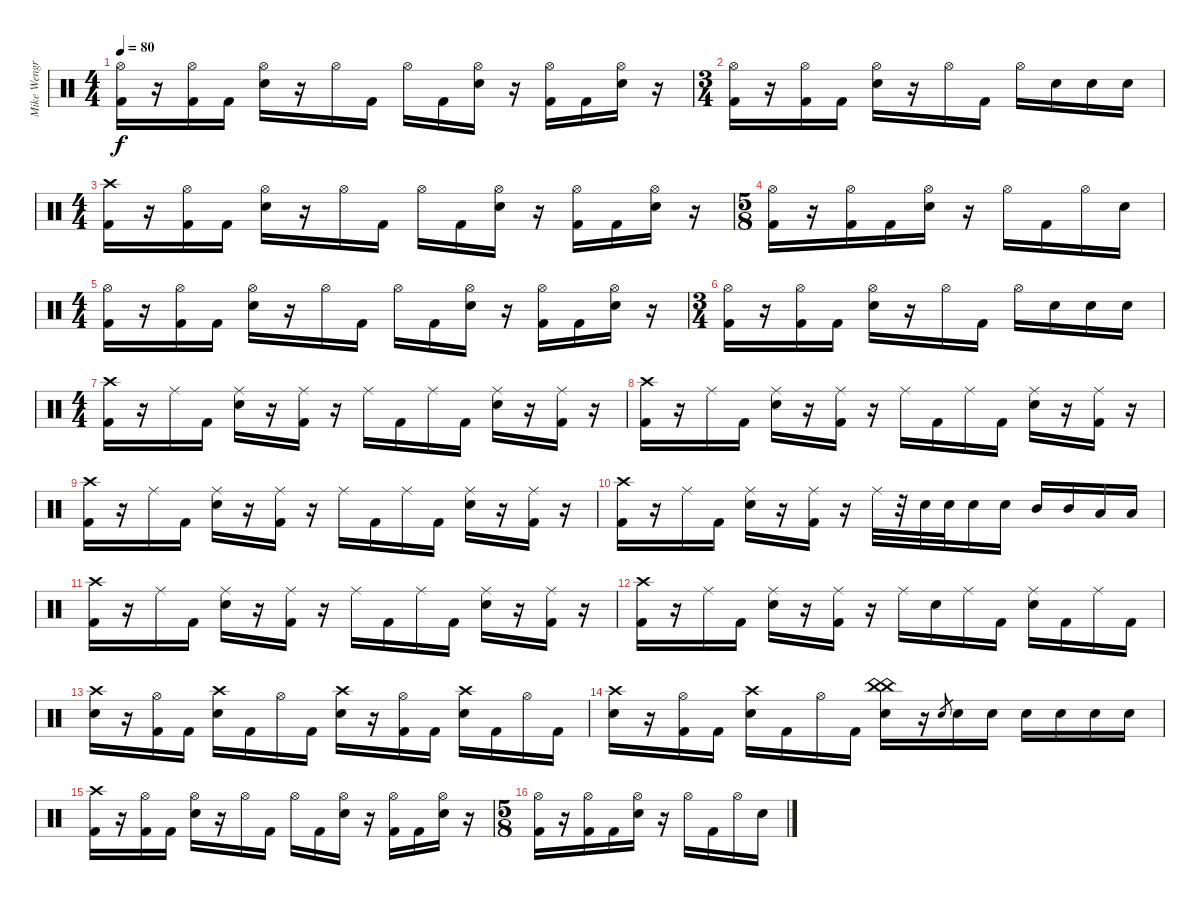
\track ("Mike Wengren (Drums)" "Mike Wengr") {instrument percussion}
\staff {score}
\articulation defaults
\ts (4 4)
\tempo 80
\clef neutral
\ks c
("Hi-Hat (open)" "Kick (hit) 2").16{dy f} r.16 ("Hi-Hat (open)" "Kick (hit) 2").16 "Kick (hit) 2".16 ("Hi-Hat (open)" "Electric Snare (hit)").16 r.16 "Hi-Hat (open)".16 "Kick (hit) 2".16 "Hi-Hat (open)".16 "Kick (hit) 2".16 ("Hi-Hat (open)" "Electric Snare (hit)").16 r.16 ("Hi-Hat (open)" "Kick (hit) 2").16 "Kick (hit) 2".16 ("Hi-Hat (open)" "Electric Snare (hit)").16 r.16 |
\ts (3 4)
("Hi-Hat (open)" "Kick (hit) 2").16 r.16 ("Hi-Hat (open)" "Kick (hit) 2").16 "Kick (hit) 2".16 ("Hi-Hat (open)" "Electric Snare (hit)").16 r.16 "Hi-Hat (open)".16 "Kick (hit) 2".16 "Hi-Hat (open)".16 "Electric Snare (hit)".16 "Electric Snare (hit)".16 "Electric Snare (hit)".16 |
\ts (4 4)
("Crash high (hit)" "Kick (hit) 2").16 r.16 ("Hi-Hat (open)" "Kick (hit) 2").16 "Kick (hit) 2".16 ("Hi-Hat (open)" "Electric Snare (hit)").16 r.16 "Hi-Hat (open)".16 "Kick (hit) 2".16 "Hi-Hat (open)".16 "Kick (hit) 2".16 ("Hi-Hat (open)" "Electric Snare (hit)").16 r.16 ("Hi-Hat (open)" "Kick (hit) 2").16 "Kick (hit) 2".16 ("Hi-Hat (open)" "Electric Snare (hit)").16 r.16 |
\ts (5 8)
("Hi-Hat (open)" "Kick (hit) 2").16 r.16 ("Hi-Hat (open)" "Kick (hit) 2").16 "Kick (hit) 2".16 ("Hi-Hat (open)" "Electric Snare (hit)").16 r.16 "Hi-Hat (open)".16 "Kick (hit) 2".16 "Hi-Hat (open)".16 "Electric Snare (hit)".16 |
\ts (4 4)
("Hi-Hat (open)" "Kick (hit) 2").16 r.16 ("Hi-Hat (open)" "Kick (hit) 2").16 "Kick (hit) 2".16 ("Hi-Hat (open)" "Electric Snare (hit)").16 r.16 "Hi-Hat (open)".16 "Kick (hit) 2".16 "Hi-Hat (open)".16 "Kick (hit) 2".16 ("Hi-Hat (open)" "Electric Snare (hit)").16 r.16 ("Hi-Hat (open)" "Kick (hit) 2").16 "Kick (hit) 2".16 ("Hi-Hat (open)" "Electric Snare (hit)").16 r.16 |
\ts (3 4)
("Hi-Hat (open)" "Kick (hit) 2").16 r.16 ("Hi-Hat (open)" "Kick (hit) 2").16 "Kick (hit) 2".16 ("Hi-Hat (open)" "Electric Snare (hit)").16 r.16 "Hi-Hat (open)".16 "Kick (hit) 2".16 "Hi-Hat (open)".16 "Electric Snare (hit)".16 "Electric Snare (hit)".16 "Electric Snare (hit)".16 |
\ts (4 4)
("Crash high (hit)" "Kick (hit) 2").16 r.16 "Ride (middle)".16 "Kick (hit) 2".16 ("Ride (middle)" "Electric Snare (hit)").16 r.16 ("Ride (middle)" "Kick (hit) 2").16 r.16 "Ride (middle)".16 "Kick (hit) 2".16 "Ride (middle)".16 "Kick (hit) 2".16 ("Ride (middle)" "Electric Snare (hit)").16 r.16 ("Ride (middle)" "Kick (hit) 2").16 r.16 |
("Crash high (hit)" "Kick (hit) 2").16 r.16 "Ride (middle)".16 "Kick (hit) 2".16 ("Ride (middle)" "Electric Snare (hit)").16 r.16 ("Ride (middle)" "Kick (hit) 2").16 r.16 "Ride (middle)".16 "Kick (hit) 2".16 "Ride (middle)".16 "Kick (hit) 2".16 ("Ride (middle)" "Electric Snare (hit)").16 r.16 ("Ride (middle)" "Kick (hit) 2").16 r.16 |
("Crash high (hit)" "Kick (hit) 2").16 r.16 "Ride (middle)".16 "Kick (hit) 2".16 ("Ride (middle)" "Electric Snare (hit)").16 r.16 ("Ride (middle)" "Kick (hit) 2").16 r.16 "Ride (middle)".16 "Kick (hit) 2".16 "Ride (middle)".16 "Kick (hit) 2".16 ("Ride (middle)" "Electric Snare (hit)").16 r.16 ("Ride (middle)" "Kick (hit) 2").16 r.16 |
("Crash high (hit)" "Kick (hit) 2").16 r.16 "Ride (middle)".16 "Kick (hit) 2".16 ("Ride (middle)" "Electric Snare (hit)").16 r.16 ("Ride (middle)" "Kick (hit) 2").16 r.16 "Ride (middle)".32 r.32 "Electric Snare (hit)".32 "Electric Snare (hit)".32 "Electric Snare (hit)".16 "Electric Snare (hit)".16 "Mid Tom (hit)".16 "Mid Tom (hit)".16 "Low Tom (hit)".16 "Low Tom (hit)".16 |
("Crash high (hit)" "Kick (hit) 2").16 r.16 "Ride (middle)".16 "Kick (hit) 2".16 ("Ride (middle)" "Electric Snare (hit)").16 r.16 ("Ride (middle)" "Kick (hit) 2").16 r.16 "Ride (middle)".16 "Kick (hit) 2".16 "Ride (middle)".16 "Kick (hit) 2".16 ("Ride (middle)" "Electric Snare (hit)").16 r.16 ("Ride (middle)" "Kick (hit) 2").16 r.16 |
("Crash high (hit)" "Kick (hit) 2").16 r.16 "Ride (middle)".16 "Kick (hit) 2".16 ("Ride (middle)" "Electric Snare (hit)").16 r.16 ("Ride (middle)" "Kick (hit) 2").16 r.16 "Ride (middle)".16 "Electric Snare (hit)".16 "Ride (middle)".16 "Kick (hit) 2".16 ("Ride (middle)" "Electric Snare (hit)").16 "Kick (hit) 2".16 "Ride (middle)".16 "Kick (hit) 2".16 |
("Crash high (hit)" "Electric Snare (hit)").16 r.16 ("Hi-Hat (open)" "Kick (hit) 2").16 "Kick (hit) 2".16 ("Crash high (hit)" "Electric Snare (hit)").16 "Kick (hit) 2".16 "Hi-Hat (open)".16 "Kick (hit) 2".16 ("Crash high (hit)" "Electric Snare (hit)").16 r.16 ("Hi-Hat (open)" "Kick (hit) 2").16 "Kick (hit) 2".16 ("Crash high (hit)" "Electric Snare (hit)").16 "Kick (hit) 2".16 "Hi-Hat (open)".16 "Kick (hit) 2".16 |
("Crash high (hit)" "Electric Snare (hit)").16 r.16 ("Hi-Hat (open)" "Kick (hit) 2").16 "Kick (hit) 2".16 ("Crash high (hit)" "Electric Snare (hit)").16 "Kick (hit) 2".16 "Hi-Hat (open)".16 "Kick (hit) 2".16 ("China (hit)" "China (hit)" "Electric Snare (hit)").16 r.16 "Electric Snare (hit)".8{gr} "Electric Snare (hit)".16 "Electric Snare (hit)".16 "Electric Snare (hit)".16 "Electric Snare (hit)".16 "Electric Snare (hit)".16 "Electric Snare (hit)".16 |
("Crash high (hit)" "Kick (hit) 2").16 r.16 ("Hi-Hat (open)" "Kick (hit) 2").16 "Kick (hit) 2".16 ("Hi-Hat (open)" "Electric Snare (hit)").16 r.16 "Hi-Hat (open)".16 "Kick (hit) 2".16 "Hi-Hat (open)".16 "Kick (hit) 2".16 ("Hi-Hat (open)" "Electric Snare (hit)").16 r.16 ("Hi-Hat (open)" "Kick (hit) 2").16 "Kick (hit) 2".16 ("Hi-Hat (open)" "Electric Snare (hit)").16 r.16 |
\ts (5 8)
("Hi-Hat (open)" "Kick (hit) 2").16 r.16 ("Hi-Hat (open)" "Kick (hit) 2").16 "Kick (hit) 2".16 ("Hi-Hat (open)" "Electric Snare (hit)").16 r.16 "Hi-Hat (open)".16 "Kick (hit) 2".16 "Hi-Hat (open)".16 "Electric Snare (hit)".16
